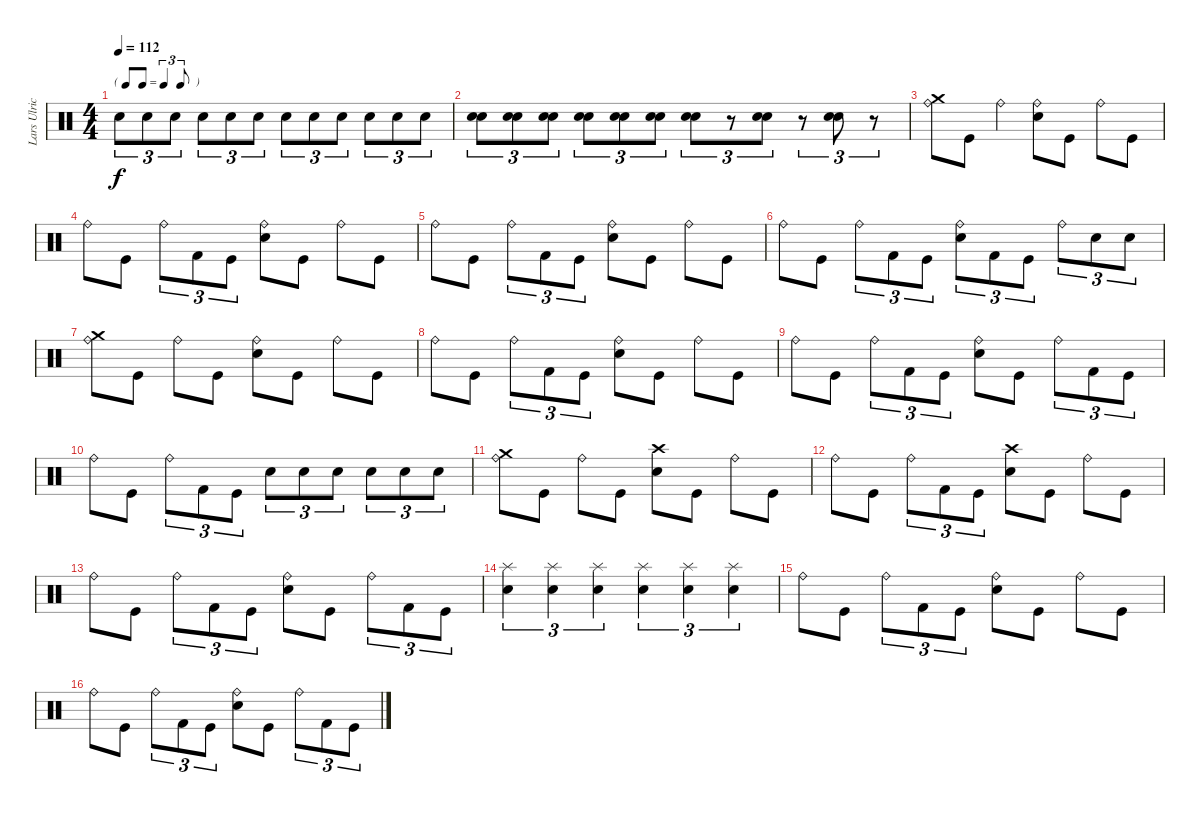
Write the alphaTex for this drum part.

\track ("Lars Ulrich (Drums)" "Lars Ulric") {instrument percussion}
\staff {score}
\articulation defaults
\ts (4 4)
\tf triplet8th
\tempo 112
\clef neutral
\ks c "Snare (hit) 2".8{tu (3 2) dy f} "Snare (hit) 2".8{tu (3 2)} "Snare (hit) 2".8{tu (3 2)} "Snare (hit) 2".8{tu (3 2)} "Snare (hit) 2".8{tu (3 2)} "Snare (hit) 2".8{tu (3 2)} "Snare (hit) 2".8{tu (3 2)} "Snare (hit) 2".8{tu (3 2)} "Snare (hit) 2".8{tu (3 2)} "Snare (hit) 2".8{tu (3 2)} "Snare (hit) 2".8{tu (3 2)} "Snare (hit) 2".8{tu (3 2)}
|
("Electric Snare (hit)" "Snare (hit) 2").8{tu (3 2)} ("Electric Snare (hit)" "Snare (hit) 2").8{tu (3 2)} ("Electric Snare (hit)" "Snare (hit) 2").8{tu (3 2)} ("Electric Snare (hit)" "Snare (hit) 2").8{tu (3 2)} ("Electric Snare (hit)" "Snare (hit) 2").8{tu (3 2)} ("Electric Snare (hit)" "Snare (hit) 2").8{tu (3 2)} ("Snare (hit) 2" "Electric Snare (hit)").8{tu (3 2)} r.8{tu (3 2)} ("Snare (hit) 2" "Electric Snare (hit)").8{tu (3 2)} r.8{tu (3 2)} ("Snare (hit) 2" "Electric Snare (hit)").8{tu (3 2)} r.8{tu (3 2)} |
("Crash medium (hit)" "Ride (bell)").8 "Kick (hit)".8 "Ride (bell)".4 ("Electric Snare (hit)" "Ride (bell)").8 "Kick (hit)".8 "Ride (bell)".8 "Kick (hit)".8 |
"Ride (bell)".8 "Kick (hit)".8 "Ride (bell)".8{tu (3 2)} "Kick (hit) 2".8{tu (3 2)} "Kick (hit)".8{tu (3 2)} ("Electric Snare (hit)" "Ride (bell)").8 "Kick (hit)".8 "Ride (bell)".8 "Kick (hit)".8 |
"Ride (bell)".8 "Kick (hit)".8 "Ride (bell)".8{tu (3 2)} "Kick (hit) 2".8{tu (3 2)} "Kick (hit)".8{tu (3 2)} ("Electric Snare (hit)" "Ride (bell)").8 "Kick (hit)".8 "Ride (bell)".8 "Kick (hit)".8 |
"Ride (bell)".8 "Kick (hit)".8 "Ride (bell)".8{tu (3 2)} "Kick (hit) 2".8{tu (3 2)} "Kick (hit)".8{tu (3 2)} ("Electric Snare (hit)" "Ride (bell)").8{tu (3 2)} "Kick (hit) 2".8{tu (3 2)} "Kick (hit)".8{tu (3 2)} "Ride (bell)".8{tu (3 2)} "Electric Snare (hit)".8{tu (3 2)} "Snare (hit) 2".8{tu (3 2)} |
("Crash medium (hit)" "Ride (bell)").8 "Kick (hit)".8 "Ride (bell)".8 "Kick (hit)".8 ("Electric Snare (hit)" "Ride (bell)").8 "Kick (hit)".8 "Ride (bell)".8 "Kick (hit)".8 |
"Ride (bell)".8 "Kick (hit)".8 "Ride (bell)".8{tu (3 2)} "Kick (hit) 2".8{tu (3 2)} "Kick (hit)".8{tu (3 2)} ("Electric Snare (hit)" "Ride (bell)").8 "Kick (hit)".8 "Ride (bell)".8 "Kick (hit)".8 |
"Ride (bell)".8 "Kick (hit)".8 "Ride (bell)".8{tu (3 2)} "Kick (hit) 2".8{tu (3 2)} "Kick (hit)".8{tu (3 2)} ("Electric Snare (hit)" "Ride (bell)").8 "Kick (hit)".8 "Ride (bell)".8{tu (3 2)} "Kick (hit) 2".8{tu (3 2)} "Kick (hit)".8{tu (3 2)} |
"Ride (bell)".8 "Kick (hit)".8 "Ride (bell)".8{tu (3 2)} "Kick (hit) 2".8{tu (3 2)} "Kick (hit)".8{tu (3 2)} "Electric Snare (hit)".8{tu (3 2)} "Electric Snare (hit)".8{tu (3 2)} "Electric Snare (hit)".8{tu (3 2)} "Electric Snare (hit)".8{tu (3 2)} "Electric Snare (hit)".8{tu (3 2)} "Electric Snare (hit)".8{tu (3 2)} |
("Crash medium (hit)" "Ride (bell)").8 "Kick (hit)".8 "Ride (bell)".8 "Kick (hit)".8 ("Electric Snare (hit)" "Crash high (hit)").8 "Kick (hit)".8 "Ride (bell)".8 "Kick (hit)".8 |
"Ride (bell)".8 "Kick (hit)".8 "Ride (bell)".8{tu (3 2)} "Kick (hit) 2".8{tu (3 2)} "Kick (hit)".8{tu (3 2)} ("Electric Snare (hit)" "Crash high (hit)").8 "Kick (hit)".8 "Ride (bell)".8 "Kick (hit)".8 |
"Ride (bell)".8 "Kick (hit)".8 "Ride (bell)".8{tu (3 2)} "Kick (hit) 2".8{tu (3 2)} "Kick (hit)".8{tu (3 2)} ("Electric Snare (hit)" "Ride (bell)").8 "Kick (hit)".8 "Ride (bell)".8{tu (3 2)} "Kick (hit) 2".8{tu (3 2)} "Kick (hit)".8{tu (3 2)} |
("Splash (hit)" "Electric Snare (hit)").4{tu (3 2)} ("Splash (hit)" "Electric Snare (hit)").4{tu (3 2)} ("Splash (hit)" "Electric Snare (hit)").4{tu (3 2)} ("Splash (hit)" "Electric Snare (hit)").4{tu (3 2)} ("Splash (hit)" "Electric Snare (hit)").4{tu (3 2)} ("Splash (hit)" "Electric Snare (hit)").4{tu (3 2)} |
"Ride (bell)".8 "Kick (hit)".8 "Ride (bell)".8{tu (3 2)} "Kick (hit) 2".8{tu (3 2)} "Kick (hit)".8{tu (3 2)} ("Electric Snare (hit)" "Ride (bell)").8 "Kick (hit)".8 "Ride (bell)".8 "Kick (hit)".8 |
"Ride (bell)".8 "Kick (hit)".8 "Ride (bell)".8{tu (3 2)} "Kick (hit) 2".8{tu (3 2)} "Kick (hit)".8{tu (3 2)} ("Electric Snare (hit)" "Ride (bell)").8 "Kick (hit)".8 "Ride (bell)".8{tu (3 2)} "Kick (hit) 2".8{tu (3 2)} "Kick (hit)".8{tu (3 2)}
